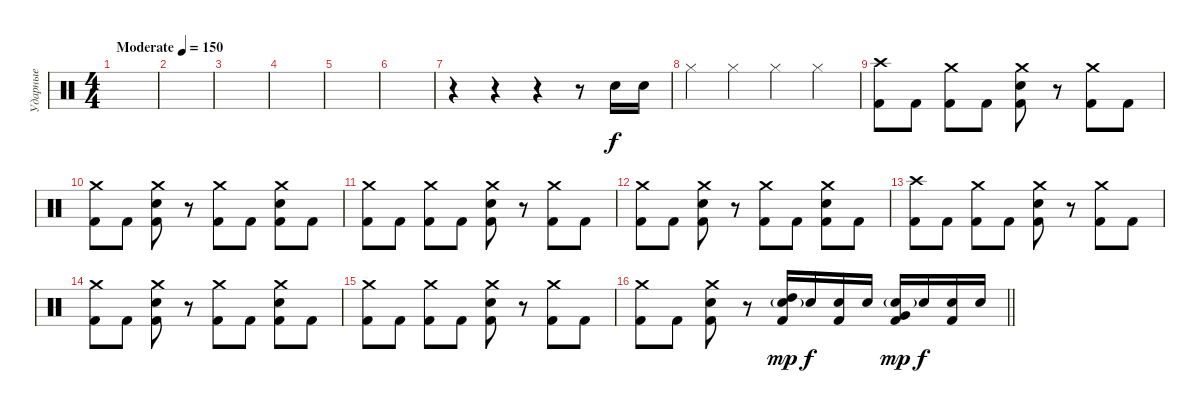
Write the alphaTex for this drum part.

\track ("Ударные" "Ударные") {instrument percussion}
\staff {score}
\articulation defaults
\ts (4 4)
\tempo (150 "Moderate")
\clef neutral
\ks c
|
|
|
|
|
|
r.4 r.4 r.4 r.8 "Electric Snare (hit)".16 "Electric Snare (hit)".16 |
"Hi-Hat (closed)".4 "Hi-Hat (closed)".4 "Hi-Hat (closed)".4 "Hi-Hat (closed)".4 |
("Crash high (hit)" "Kick (hit) 2").8 "Kick (hit) 2".8 ("Crash medium (hit)" "Kick (hit) 2").8 "Kick (hit) 2".8 ("Crash medium (hit)" "Electric Snare (hit)" "Kick (hit) 2").8 r.8 ("Crash medium (hit)" "Kick (hit) 2").8 "Kick (hit) 2".8 |
("Crash medium (hit)" "Kick (hit) 2").8 "Kick (hit) 2".8 ("Crash medium (hit)" "Electric Snare (hit)" "Kick (hit) 2").8 r.8 ("Crash medium (hit)" "Kick (hit) 2").8 "Kick (hit) 2".8 ("Crash medium (hit)" "Electric Snare (hit)" "Kick (hit) 2").8 "Kick (hit) 2".8 |
("Crash medium (hit)" "Kick (hit) 2").8 "Kick (hit) 2".8 ("Crash medium (hit)" "Kick (hit) 2").8 "Kick (hit) 2".8 ("Crash medium (hit)" "Electric Snare (hit)" "Kick (hit) 2").8 r.8 ("Crash medium (hit)" "Kick (hit) 2").8 "Kick (hit) 2".8 |
("Crash medium (hit)" "Kick (hit) 2").8 "Kick (hit) 2".8 ("Crash medium (hit)" "Electric Snare (hit)" "Kick (hit) 2").8 r.8 ("Crash medium (hit)" "Kick (hit) 2").8 "Kick (hit) 2".8 ("Crash medium (hit)" "Electric Snare (hit)" "Kick (hit) 2").8 "Kick (hit) 2".8 |
("Crash high (hit)" "Kick (hit) 2").8 "Kick (hit) 2".8 ("Crash medium (hit)" "Kick (hit) 2").8 "Kick (hit) 2".8 ("Crash medium (hit)" "Electric Snare (hit)" "Kick (hit) 2").8 r.8 ("Crash medium (hit)" "Kick (hit) 2").8 "Kick (hit) 2".8 |
("Crash medium (hit)" "Kick (hit) 2").8 "Kick (hit) 2".8 ("Crash medium (hit)" "Electric Snare (hit)" "Kick (hit) 2").8 r.8 ("Crash medium (hit)" "Kick (hit) 2").8 "Kick (hit) 2".8 ("Crash medium (hit)" "Electric Snare (hit)" "Kick (hit) 2").8 "Kick (hit) 2".8 |
("Crash medium (hit)" "Kick (hit) 2").8 "Kick (hit) 2".8 ("Crash medium (hit)" "Kick (hit) 2").8 "Kick (hit) 2".8 ("Crash medium (hit)" "Electric Snare (hit)" "Kick (hit) 2").8 r.8 ("Crash medium (hit)" "Kick (hit) 2").8 "Kick (hit) 2".8 |
\barLineRight lightlight
("Crash medium (hit)" "Kick (hit) 2").8 "Kick (hit) 2".8 ("Crash medium (hit)" "Electric Snare (hit)" "Kick (hit) 2").8 r.8 ("High Tom (hit)" "Electric Snare (hit)"{g} "Kick (hit) 2").16{dy mp} "Electric Snare (hit)".16{dy f} ("Electric Snare (hit)" "Kick (hit) 2").16 "Electric Snare (hit)".16 ("Very Low Tom (hit)" "Electric Snare (hit)"{g} "Kick (hit) 2").16{dy mp} "Electric Snare (hit)".16{dy f} ("Electric Snare (hit)" "Kick (hit) 2").16 "Electric Snare (hit)".16
